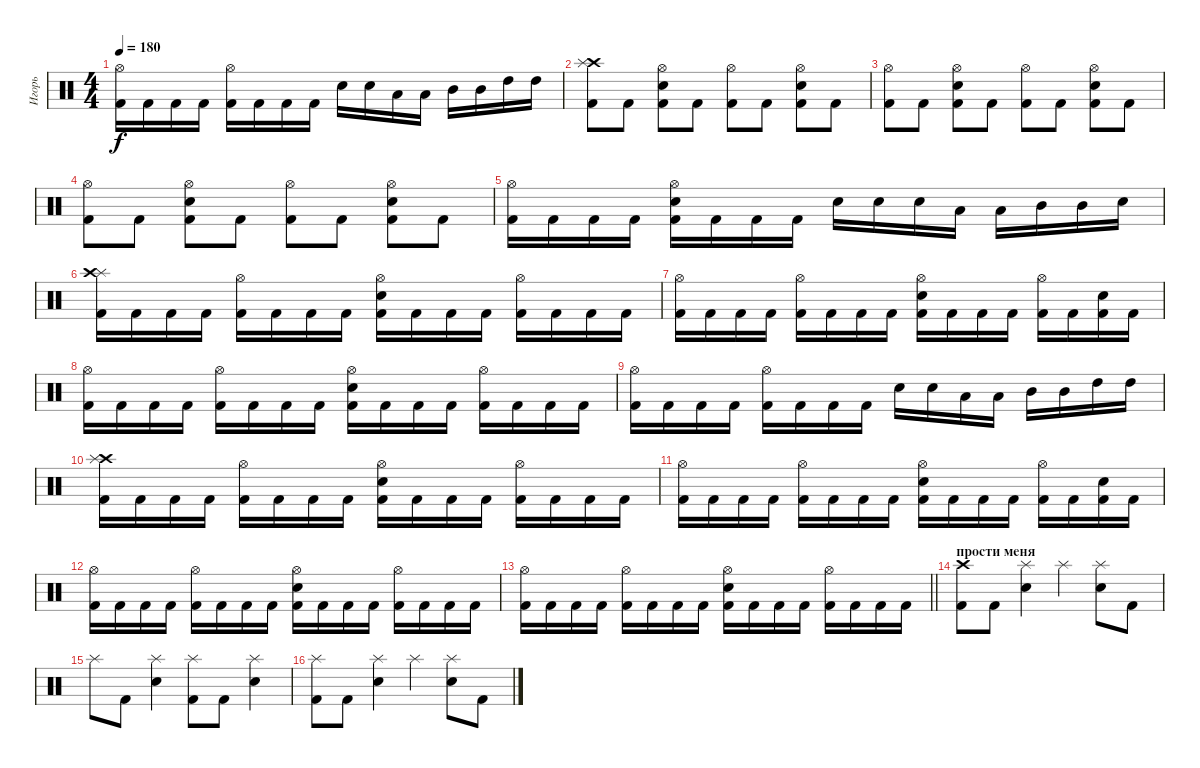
\track ("Игорь" "Игорь") {instrument percussion}
\staff {score}
\articulation defaults
\ts (4 4)
\tempo 180
\clef neutral
\ks c
("Hi-Hat (open)" "Kick (hit) 2").16{dy f} "Kick (hit) 2".16 "Kick (hit) 2".16 "Kick (hit) 2".16 ("Hi-Hat (open)" "Kick (hit) 2").16 "Kick (hit) 2".16 "Kick (hit) 2".16 "Kick (hit) 2".16 "Electric Snare (hit)".16 "Electric Snare (hit)".16 "Low Tom (hit)".16 "Low Tom (hit)".16 "Mid Tom (hit)".16 "Mid Tom (hit)".16 "High Tom (hit)".16 "High Tom (hit)".16 |
("Crash high (hit)" "Splash (hit)" "Kick (hit) 2").8 "Kick (hit) 2".8 ("Hi-Hat (open)" "Electric Snare (hit)" "Kick (hit) 2").8 "Kick (hit) 2".8 ("Hi-Hat (open)" "Kick (hit) 2").8 "Kick (hit) 2".8 ("Hi-Hat (open)" "Electric Snare (hit)" "Kick (hit) 2").8 "Kick (hit) 2".8 |
("Hi-Hat (open)" "Kick (hit) 2").8 "Kick (hit) 2".8 ("Hi-Hat (open)" "Electric Snare (hit)" "Kick (hit) 2").8 "Kick (hit) 2".8 ("Hi-Hat (open)" "Kick (hit) 2").8 "Kick (hit) 2".8 ("Hi-Hat (open)" "Electric Snare (hit)" "Kick (hit) 2").8 "Kick (hit) 2".8 |
("Hi-Hat (open)" "Kick (hit) 2").8 "Kick (hit) 2".8 ("Hi-Hat (open)" "Electric Snare (hit)" "Kick (hit) 2").8 "Kick (hit) 2".8 ("Hi-Hat (open)" "Kick (hit) 2").8 "Kick (hit) 2".8 ("Hi-Hat (open)" "Electric Snare (hit)" "Kick (hit) 2").8 "Kick (hit) 2".8 |
("Hi-Hat (open)" "Kick (hit) 2").16 "Kick (hit) 2".16 "Kick (hit) 2".16 "Kick (hit) 2".16 ("Hi-Hat (open)" "Electric Snare (hit)" "Kick (hit) 2").16 "Kick (hit) 2".16 "Kick (hit) 2".16 "Kick (hit) 2".16 "Electric Snare (hit)".16 "Electric Snare (hit)".16 "Electric Snare (hit)".16 "Low Tom (hit)".16 "Low Tom (hit)".16 "Mid Tom (hit)".16 "Mid Tom (hit)".16 "Electric Snare (hit)".16 |
("Splash (hit)" "Crash high (hit)" "Kick (hit) 2").16 "Kick (hit) 2".16 "Kick (hit) 2".16 "Kick (hit) 2".16 ("Hi-Hat (open)" "Kick (hit) 2").16 "Kick (hit) 2".16 "Kick (hit) 2".16 "Kick (hit) 2".16 ("Hi-Hat (open)" "Electric Snare (hit)" "Kick (hit) 2").16 "Kick (hit) 2".16 "Kick (hit) 2".16 "Kick (hit) 2".16 ("Hi-Hat (open)" "Kick (hit) 2").16 "Kick (hit) 2".16 "Kick (hit) 2".16 "Kick (hit) 2".16 |
("Hi-Hat (open)" "Kick (hit) 2").16 "Kick (hit) 2".16 "Kick (hit) 2".16 "Kick (hit) 2".16 ("Hi-Hat (open)" "Kick (hit) 2").16 "Kick (hit) 2".16 "Kick (hit) 2".16 "Kick (hit) 2".16 ("Hi-Hat (open)" "Electric Snare (hit)" "Kick (hit) 2").16 "Kick (hit) 2".16 "Kick (hit) 2".16 "Kick (hit) 2".16 ("Hi-Hat (open)" "Kick (hit) 2").16 "Kick (hit) 2".16 ("Electric Snare (hit)" "Kick (hit) 2").16 "Kick (hit) 2".16 |
("Hi-Hat (open)" "Kick (hit) 2").16 "Kick (hit) 2".16 "Kick (hit) 2".16 "Kick (hit) 2".16 ("Hi-Hat (open)" "Kick (hit) 2").16 "Kick (hit) 2".16 "Kick (hit) 2".16 "Kick (hit) 2".16 ("Hi-Hat (open)" "Electric Snare (hit)" "Kick (hit) 2").16 "Kick (hit) 2".16 "Kick (hit) 2".16 "Kick (hit) 2".16 ("Hi-Hat (open)" "Kick (hit) 2").16 "Kick (hit) 2".16 "Kick (hit) 2".16 "Kick (hit) 2".16 |
("Hi-Hat (open)" "Kick (hit) 2").16 "Kick (hit) 2".16 "Kick (hit) 2".16 "Kick (hit) 2".16 ("Hi-Hat (open)" "Kick (hit) 2").16 "Kick (hit) 2".16 "Kick (hit) 2".16 "Kick (hit) 2".16 "Electric Snare (hit)".16 "Electric Snare (hit)".16 "Low Tom (hit)".16 "Low Tom (hit)".16 "Mid Tom (hit)".16 "Mid Tom (hit)".16 "High Tom (hit)".16 "High Tom (hit)".16 |
("Crash high (hit)" "Splash (hit)" "Kick (hit) 2").16 "Kick (hit) 2".16 "Kick (hit) 2".16 "Kick (hit) 2".16 ("Hi-Hat (open)" "Kick (hit) 2").16 "Kick (hit) 2".16 "Kick (hit) 2".16 "Kick (hit) 2".16 ("Hi-Hat (open)" "Electric Snare (hit)" "Kick (hit) 2").16 "Kick (hit) 2".16 "Kick (hit) 2".16 "Kick (hit) 2".16 ("Hi-Hat (open)" "Kick (hit) 2").16 "Kick (hit) 2".16 "Kick (hit) 2".16 "Kick (hit) 2".16 |
("Hi-Hat (open)" "Kick (hit) 2").16 "Kick (hit) 2".16 "Kick (hit) 2".16 "Kick (hit) 2".16 ("Hi-Hat (open)" "Kick (hit) 2").16 "Kick (hit) 2".16 "Kick (hit) 2".16 "Kick (hit) 2".16 ("Hi-Hat (open)" "Electric Snare (hit)" "Kick (hit) 2").16 "Kick (hit) 2".16 "Kick (hit) 2".16 "Kick (hit) 2".16 ("Hi-Hat (open)" "Kick (hit) 2").16 "Kick (hit) 2".16 ("Electric Snare (hit)" "Kick (hit) 2").16 "Kick (hit) 2".16 |
("Hi-Hat (open)" "Kick (hit) 2").16 "Kick (hit) 2".16 "Kick (hit) 2".16 "Kick (hit) 2".16 ("Hi-Hat (open)" "Kick (hit) 2").16 "Kick (hit) 2".16 "Kick (hit) 2".16 "Kick (hit) 2".16 ("Hi-Hat (open)" "Electric Snare (hit)" "Kick (hit) 2").16 "Kick (hit) 2".16 "Kick (hit) 2".16 "Kick (hit) 2".16 ("Hi-Hat (open)" "Kick (hit) 2").16 "Kick (hit) 2".16 "Kick (hit) 2".16 "Kick (hit) 2".16 |
\barLineRight lightlight
("Hi-Hat (open)" "Kick (hit) 2").16 "Kick (hit) 2".16 "Kick (hit) 2".16 "Kick (hit) 2".16 ("Hi-Hat (open)" "Kick (hit) 2").16 "Kick (hit) 2".16 "Kick (hit) 2".16 "Kick (hit) 2".16 ("Hi-Hat (open)" "Electric Snare (hit)" "Kick (hit) 2").16 "Kick (hit) 2".16 "Kick (hit) 2".16 "Kick (hit) 2".16 ("Hi-Hat (open)" "Kick (hit) 2").16 "Kick (hit) 2".16 "Kick (hit) 2".16 "Kick (hit) 2".16 |
\section ("" "прости меня")
("Crash high (hit)" "Kick (hit) 2").8 "Kick (hit) 2".8 ("Splash (hit)" "Electric Snare (hit)").4 "Splash (hit)".4 ("Splash (hit)" "Electric Snare (hit)").8 "Kick (hit) 2".8 |
"Splash (hit)".8 "Kick (hit) 2".8 ("Splash (hit)" "Electric Snare (hit)").4 ("Splash (hit)" "Kick (hit) 2").8 "Kick (hit) 2".8 ("Splash (hit)" "Electric Snare (hit)").4 |
("Splash (hit)" "Kick (hit) 2").8 "Kick (hit) 2".8 ("Splash (hit)" "Electric Snare (hit)").4 "Splash (hit)".4 ("Splash (hit)" "Electric Snare (hit)").8 "Kick (hit) 2".8
